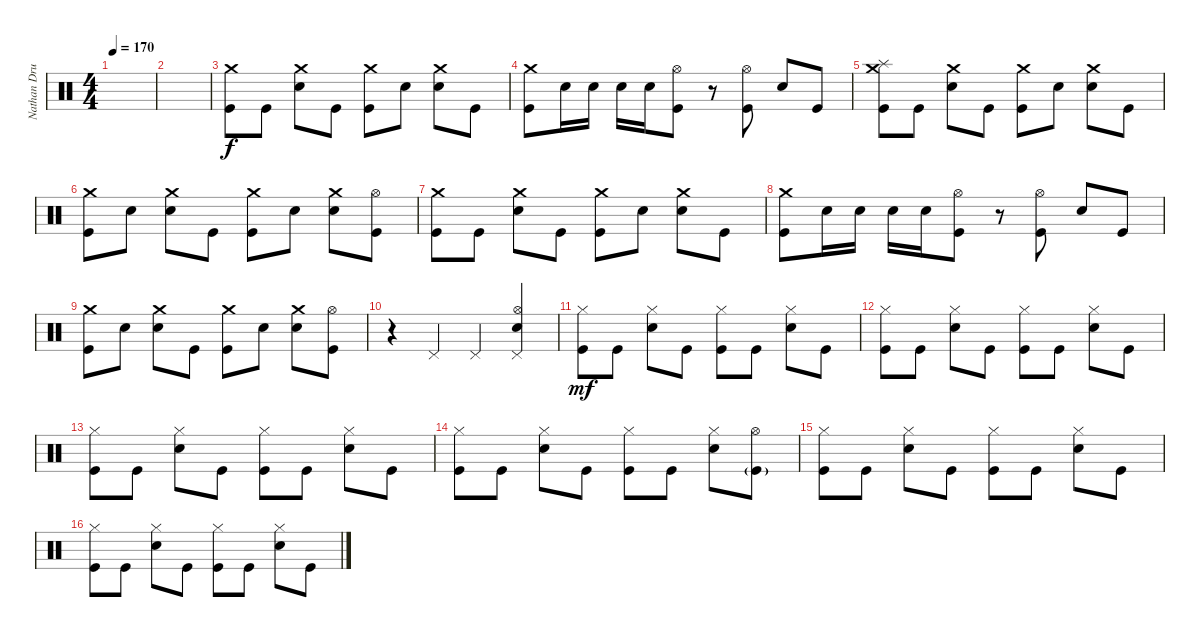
\track ("Nathan Drum Programming" "Nathan Dru") {instrument percussion}
\staff {score}
\articulation defaults
\ts (4 4)
\tempo 170
\clef neutral
\ks c
|
|
("Crash medium (hit)" "Kick (hit)").8 "Kick (hit)".8 ("Crash medium (hit)" "Snare (hit) 2").8 "Kick (hit)".8 ("Crash medium (hit)" "Kick (hit)").8 "Snare (hit) 2".8 ("Crash medium (hit)" "Snare (hit) 2").8 "Kick (hit)".8 |
("Crash medium (hit)" "Kick (hit)").8 "Snare (hit) 2".16 "Snare (hit) 2".16 "Snare (hit) 2".16 "Snare (hit) 2".16 ("Kick (hit)" "Hi-Hat (open)").8 r.8 ("Hi-Hat (open)" "Kick (hit)").8 "Snare (hit) 2".8 "Kick (hit)".8 |
("Crash medium (hit)" "Splash (hit)" "Kick (hit)").8 "Kick (hit)".8 ("Crash medium (hit)" "Snare (hit) 2").8 "Kick (hit)".8 ("Crash medium (hit)" "Kick (hit)").8 "Snare (hit) 2".8 ("Crash medium (hit)" "Snare (hit) 2").8 "Kick (hit)".8 |
("Crash medium (hit)" "Kick (hit)").8 "Snare (hit) 2".8 ("Crash medium (hit)" "Snare (hit) 2").8 "Kick (hit)".8 ("Crash medium (hit)" "Kick (hit)").8 "Snare (hit) 2".8 ("Crash medium (hit)" "Snare (hit) 2").8 ("Kick (hit)" "Hi-Hat (open)").8 |
("Crash medium (hit)" "Kick (hit)").8 "Kick (hit)".8 ("Crash medium (hit)" "Snare (hit) 2").8 "Kick (hit)".8 ("Crash medium (hit)" "Kick (hit)").8 "Snare (hit) 2".8 ("Crash medium (hit)" "Snare (hit) 2").8 "Kick (hit)".8 |
("Crash medium (hit)" "Kick (hit)").8 "Snare (hit) 2".16 "Snare (hit) 2".16 "Snare (hit) 2".16 "Snare (hit) 2".16 ("Kick (hit)" "Hi-Hat (open)").8 r.8 ("Hi-Hat (open)" "Kick (hit)").8 "Snare (hit) 2".8 "Kick (hit)".8 |
("Crash medium (hit)" "Kick (hit)").8 "Snare (hit) 2".8 ("Crash medium (hit)" "Snare (hit) 2").8 "Kick (hit)".8 ("Crash medium (hit)" "Kick (hit)").8 "Snare (hit) 2".8 ("Crash medium (hit)" "Snare (hit) 2").8 ("Kick (hit)" "Hi-Hat (open)").8 |
r.4 "Pedal Hi-Hat (hit)".4 "Pedal Hi-Hat (hit)".4 ("Pedal Hi-Hat (hit)" "Snare (hit) 2" "Hi-Hat (open)").4 |
("Hi-Hat (closed)" "Kick (hit)").8{dy mf} "Kick (hit)".8 ("Hi-Hat (closed)" "Snare (hit) 2").8 "Kick (hit)".8 ("Hi-Hat (closed)" "Kick (hit)").8 "Kick (hit)".8 ("Hi-Hat (closed)" "Snare (hit) 2").8 "Kick (hit)".8 |
("Hi-Hat (closed)" "Kick (hit)").8 "Kick (hit)".8 ("Hi-Hat (closed)" "Snare (hit) 2").8 "Kick (hit)".8 ("Hi-Hat (closed)" "Kick (hit)").8 "Kick (hit)".8 ("Hi-Hat (closed)" "Snare (hit) 2").8 "Kick (hit)".8 |
("Hi-Hat (closed)" "Kick (hit)").8 "Kick (hit)".8 ("Hi-Hat (closed)" "Snare (hit) 2").8 "Kick (hit)".8 ("Hi-Hat (closed)" "Kick (hit)").8 "Kick (hit)".8 ("Hi-Hat (closed)" "Snare (hit) 2").8 "Kick (hit)".8 |
("Hi-Hat (closed)" "Kick (hit)").8 "Kick (hit)".8 ("Hi-Hat (closed)" "Snare (hit) 2").8 "Kick (hit)".8 ("Hi-Hat (closed)" "Kick (hit)").8 "Kick (hit)".8 ("Hi-Hat (closed)" "Snare (hit) 2").8 ("Hi-Hat (open)" "Kick (hit)"{g}).8 |
("Hi-Hat (closed)" "Kick (hit)").8 "Kick (hit)".8 ("Hi-Hat (closed)" "Snare (hit) 2").8 "Kick (hit)".8 ("Hi-Hat (closed)" "Kick (hit)").8 "Kick (hit)".8 ("Hi-Hat (closed)" "Snare (hit) 2").8 "Kick (hit)".8 |
("Hi-Hat (closed)" "Kick (hit)").8 "Kick (hit)".8 ("Hi-Hat (closed)" "Snare (hit) 2").8 "Kick (hit)".8 ("Hi-Hat (closed)" "Kick (hit)").8 "Kick (hit)".8 ("Hi-Hat (closed)" "Snare (hit) 2").8 "Kick (hit)".8
